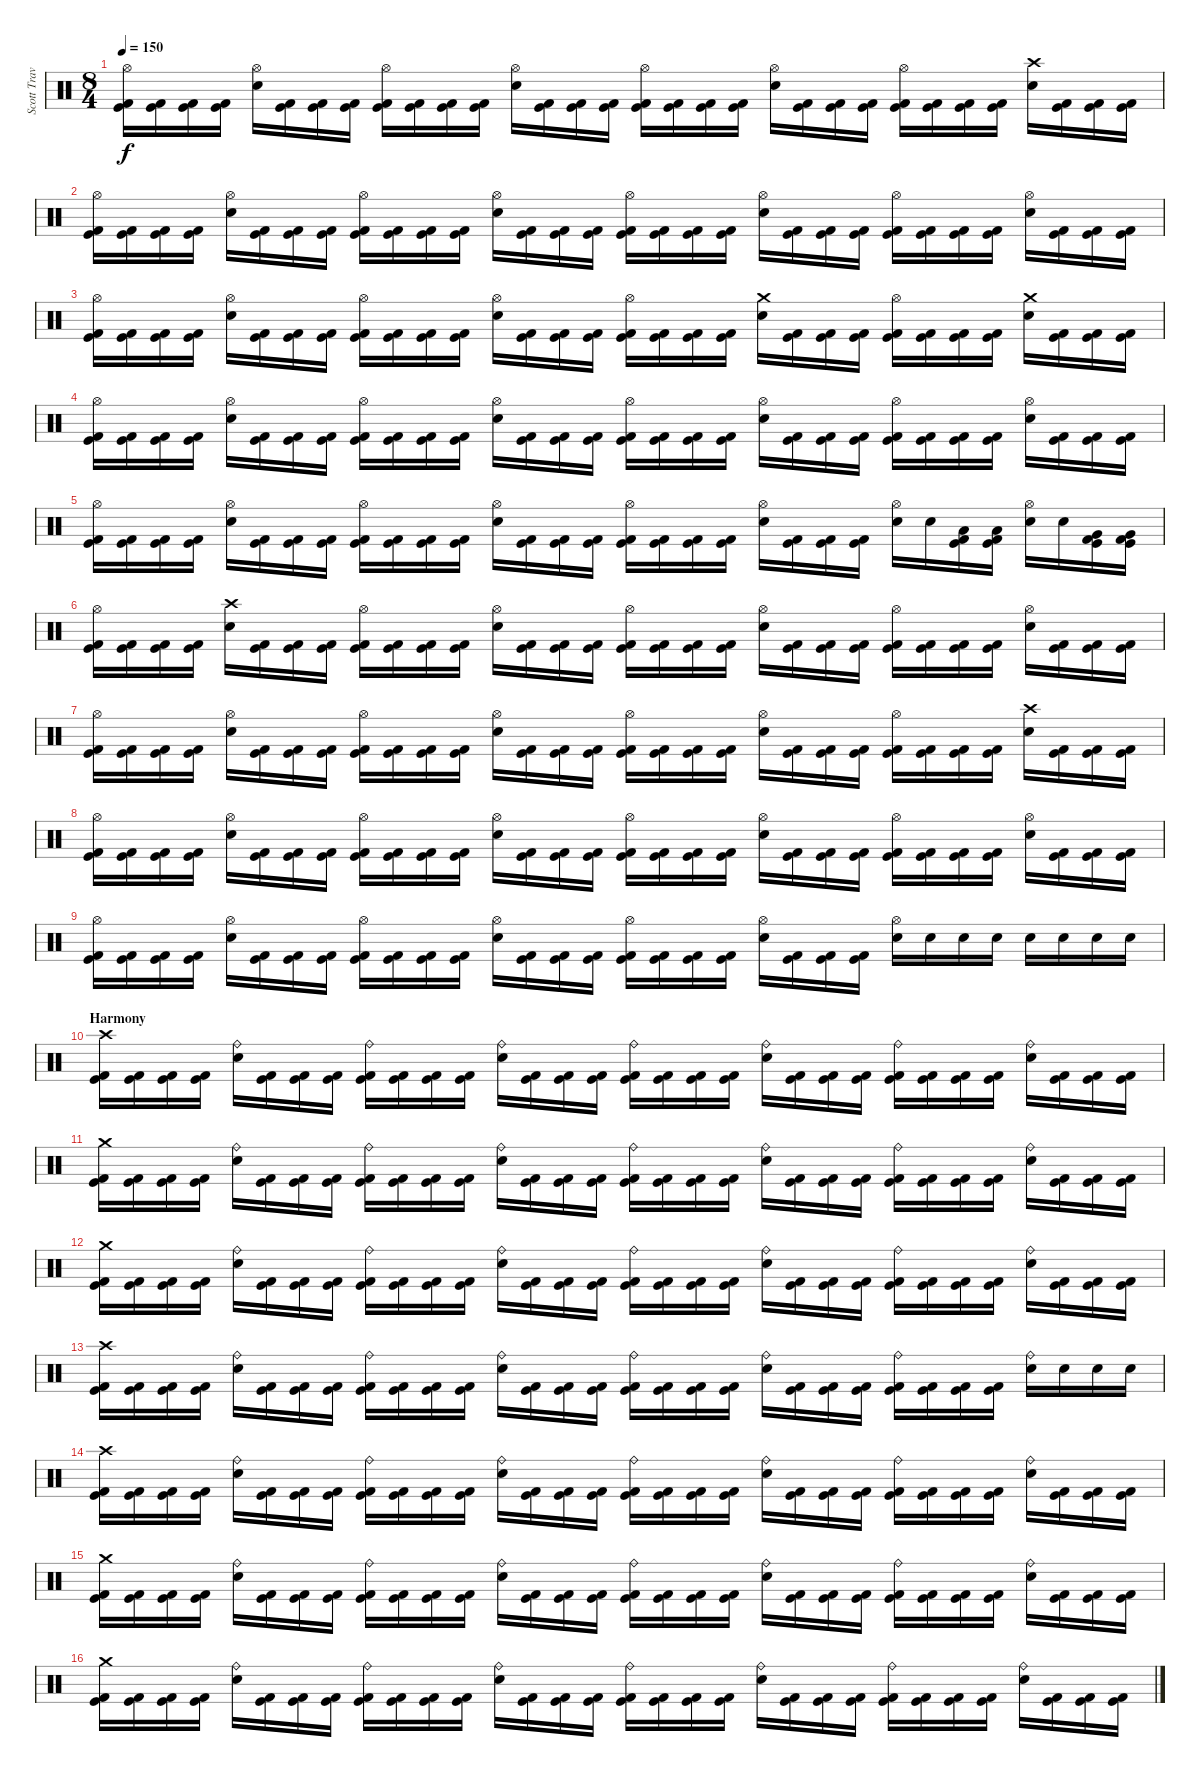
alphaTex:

\track ("Scott Travis" "Scott Trav") {instrument percussion}
\staff {score}
\articulation defaults
\ts (8 4)
\tempo 150
\clef neutral
\ks c
("Hi-Hat (open)" "Kick (hit)" "Kick (hit) 2").16{dy f} ("Kick (hit)" "Kick (hit) 2").16 ("Kick (hit)" "Kick (hit) 2").16 ("Kick (hit)" "Kick (hit) 2").16 ("Hi-Hat (open)" "Electric Snare (hit)").16 ("Kick (hit)" "Kick (hit) 2").16 ("Kick (hit)" "Kick (hit) 2").16 ("Kick (hit)" "Kick (hit) 2").16 ("Hi-Hat (open)" "Kick (hit)" "Kick (hit) 2").16 ("Kick (hit)" "Kick (hit) 2").16 ("Kick (hit)" "Kick (hit) 2").16 ("Kick (hit)" "Kick (hit) 2").16 ("Hi-Hat (open)" "Electric Snare (hit)").16 ("Kick (hit)" "Kick (hit) 2").16 ("Kick (hit)" "Kick (hit) 2").16 ("Kick (hit)" "Kick (hit) 2").16 ("Hi-Hat (open)" "Kick (hit)" "Kick (hit) 2").16 ("Kick (hit)" "Kick (hit) 2").16 ("Kick (hit)" "Kick (hit) 2").16 ("Kick (hit)" "Kick (hit) 2").16 ("Hi-Hat (open)" "Electric Snare (hit)").16 ("Kick (hit)" "Kick (hit) 2").16 ("Kick (hit)" "Kick (hit) 2").16 ("Kick (hit)" "Kick (hit) 2").16 ("Hi-Hat (open)" "Kick (hit)" "Kick (hit) 2").16 ("Kick (hit)" "Kick (hit) 2").16 ("Kick (hit)" "Kick (hit) 2").16 ("Kick (hit)" "Kick (hit) 2").16 ("Crash high (hit)" "Electric Snare (hit)").16 ("Kick (hit)" "Kick (hit) 2").16 ("Kick (hit)" "Kick (hit) 2").16 ("Kick (hit)" "Kick (hit) 2").16 |
("Hi-Hat (open)" "Kick (hit)" "Kick (hit) 2").16 ("Kick (hit)" "Kick (hit) 2").16 ("Kick (hit)" "Kick (hit) 2").16 ("Kick (hit)" "Kick (hit) 2").16 ("Hi-Hat (open)" "Electric Snare (hit)").16 ("Kick (hit)" "Kick (hit) 2").16 ("Kick (hit)" "Kick (hit) 2").16 ("Kick (hit)" "Kick (hit) 2").16 ("Hi-Hat (open)" "Kick (hit)" "Kick (hit) 2").16 ("Kick (hit)" "Kick (hit) 2").16 ("Kick (hit)" "Kick (hit) 2").16 ("Kick (hit)" "Kick (hit) 2").16 ("Hi-Hat (open)" "Electric Snare (hit)").16 ("Kick (hit)" "Kick (hit) 2").16 ("Kick (hit)" "Kick (hit) 2").16 ("Kick (hit)" "Kick (hit) 2").16 ("Hi-Hat (open)" "Kick (hit)" "Kick (hit) 2").16 ("Kick (hit)" "Kick (hit) 2").16 ("Kick (hit)" "Kick (hit) 2").16 ("Kick (hit)" "Kick (hit) 2").16 ("Hi-Hat (open)" "Electric Snare (hit)").16 ("Kick (hit)" "Kick (hit) 2").16 ("Kick (hit)" "Kick (hit) 2").16 ("Kick (hit)" "Kick (hit) 2").16 ("Hi-Hat (open)" "Kick (hit)" "Kick (hit) 2").16 ("Kick (hit)" "Kick (hit) 2").16 ("Kick (hit)" "Kick (hit) 2").16 ("Kick (hit)" "Kick (hit) 2").16 ("Hi-Hat (open)" "Electric Snare (hit)").16 ("Kick (hit)" "Kick (hit) 2").16 ("Kick (hit)" "Kick (hit) 2").16 ("Kick (hit)" "Kick (hit) 2").16 |
("Hi-Hat (open)" "Kick (hit)" "Kick (hit) 2").16 ("Kick (hit)" "Kick (hit) 2").16 ("Kick (hit)" "Kick (hit) 2").16 ("Kick (hit)" "Kick (hit) 2").16 ("Hi-Hat (open)" "Electric Snare (hit)").16 ("Kick (hit)" "Kick (hit) 2").16 ("Kick (hit)" "Kick (hit) 2").16 ("Kick (hit)" "Kick (hit) 2").16 ("Hi-Hat (open)" "Kick (hit)" "Kick (hit) 2").16 ("Kick (hit)" "Kick (hit) 2").16 ("Kick (hit)" "Kick (hit) 2").16 ("Kick (hit)" "Kick (hit) 2").16 ("Hi-Hat (open)" "Electric Snare (hit)").16 ("Kick (hit)" "Kick (hit) 2").16 ("Kick (hit)" "Kick (hit) 2").16 ("Kick (hit)" "Kick (hit) 2").16 ("Hi-Hat (open)" "Kick (hit)" "Kick (hit) 2").16 ("Kick (hit)" "Kick (hit) 2").16 ("Kick (hit)" "Kick (hit) 2").16 ("Kick (hit)" "Kick (hit) 2").16 ("Crash medium (hit)" "Electric Snare (hit)").16 ("Kick (hit)" "Kick (hit) 2").16 ("Kick (hit)" "Kick (hit) 2").16 ("Kick (hit)" "Kick (hit) 2").16 ("Hi-Hat (open)" "Kick (hit)" "Kick (hit) 2").16 ("Kick (hit)" "Kick (hit) 2").16 ("Kick (hit)" "Kick (hit) 2").16 ("Kick (hit)" "Kick (hit) 2").16 ("Crash medium (hit)" "Electric Snare (hit)").16 ("Kick (hit)" "Kick (hit) 2").16 ("Kick (hit)" "Kick (hit) 2").16 ("Kick (hit)" "Kick (hit) 2").16 |
("Hi-Hat (open)" "Kick (hit)" "Kick (hit) 2").16 ("Kick (hit)" "Kick (hit) 2").16 ("Kick (hit)" "Kick (hit) 2").16 ("Kick (hit)" "Kick (hit) 2").16 ("Hi-Hat (open)" "Electric Snare (hit)").16 ("Kick (hit)" "Kick (hit) 2").16 ("Kick (hit)" "Kick (hit) 2").16 ("Kick (hit)" "Kick (hit) 2").16 ("Hi-Hat (open)" "Kick (hit)" "Kick (hit) 2").16 ("Kick (hit)" "Kick (hit) 2").16 ("Kick (hit)" "Kick (hit) 2").16 ("Kick (hit)" "Kick (hit) 2").16 ("Hi-Hat (open)" "Electric Snare (hit)").16 ("Kick (hit)" "Kick (hit) 2").16 ("Kick (hit)" "Kick (hit) 2").16 ("Kick (hit)" "Kick (hit) 2").16 ("Hi-Hat (open)" "Kick (hit)" "Kick (hit) 2").16 ("Kick (hit)" "Kick (hit) 2").16 ("Kick (hit)" "Kick (hit) 2").16 ("Kick (hit)" "Kick (hit) 2").16 ("Hi-Hat (open)" "Electric Snare (hit)").16 ("Kick (hit)" "Kick (hit) 2").16 ("Kick (hit)" "Kick (hit) 2").16 ("Kick (hit)" "Kick (hit) 2").16 ("Hi-Hat (open)" "Kick (hit)" "Kick (hit) 2").16 ("Kick (hit)" "Kick (hit) 2").16 ("Kick (hit)" "Kick (hit) 2").16 ("Kick (hit)" "Kick (hit) 2").16 ("Hi-Hat (open)" "Electric Snare (hit)").16 ("Kick (hit)" "Kick (hit) 2").16 ("Kick (hit)" "Kick (hit) 2").16 ("Kick (hit)" "Kick (hit) 2").16 |
("Hi-Hat (open)" "Kick (hit)" "Kick (hit) 2").16 ("Kick (hit)" "Kick (hit) 2").16 ("Kick (hit)" "Kick (hit) 2").16 ("Kick (hit)" "Kick (hit) 2").16 ("Hi-Hat (open)" "Electric Snare (hit)").16 ("Kick (hit)" "Kick (hit) 2").16 ("Kick (hit)" "Kick (hit) 2").16 ("Kick (hit)" "Kick (hit) 2").16 ("Hi-Hat (open)" "Kick (hit)" "Kick (hit) 2").16 ("Kick (hit)" "Kick (hit) 2").16 ("Kick (hit)" "Kick (hit) 2").16 ("Kick (hit)" "Kick (hit) 2").16 ("Hi-Hat (open)" "Electric Snare (hit)").16 ("Kick (hit)" "Kick (hit) 2").16 ("Kick (hit)" "Kick (hit) 2").16 ("Kick (hit)" "Kick (hit) 2").16 ("Hi-Hat (open)" "Kick (hit)" "Kick (hit) 2").16 ("Kick (hit)" "Kick (hit) 2").16 ("Kick (hit)" "Kick (hit) 2").16 ("Kick (hit)" "Kick (hit) 2").16 ("Hi-Hat (open)" "Electric Snare (hit)").16 ("Kick (hit)" "Kick (hit) 2").16 ("Kick (hit)" "Kick (hit) 2").16 ("Kick (hit)" "Kick (hit) 2").16 ("Hi-Hat (open)" "Electric Snare (hit)").16 "Electric Snare (hit)".16 ("Low Tom (hit)" "Kick (hit)" "Kick (hit) 2").16 ("Low Tom (hit)" "Kick (hit)" "Kick (hit) 2").16 ("Hi-Hat (open)" "Electric Snare (hit)").16 "Electric Snare (hit)".16 ("Very Low Tom (hit)" "Kick (hit)" "Kick (hit) 2").16 ("Very Low Tom (hit)" "Kick (hit)" "Kick (hit) 2").16 |
("Hi-Hat (open)" "Kick (hit)" "Kick (hit) 2").16 ("Kick (hit)" "Kick (hit) 2").16 ("Kick (hit)" "Kick (hit) 2").16 ("Kick (hit)" "Kick (hit) 2").16 ("Crash high (hit)" "Electric Snare (hit)").16 ("Kick (hit)" "Kick (hit) 2").16 ("Kick (hit)" "Kick (hit) 2").16 ("Kick (hit)" "Kick (hit) 2").16 ("Hi-Hat (open)" "Kick (hit)" "Kick (hit) 2").16 ("Kick (hit)" "Kick (hit) 2").16 ("Kick (hit)" "Kick (hit) 2").16 ("Kick (hit)" "Kick (hit) 2").16 ("Hi-Hat (open)" "Electric Snare (hit)").16 ("Kick (hit)" "Kick (hit) 2").16 ("Kick (hit)" "Kick (hit) 2").16 ("Kick (hit)" "Kick (hit) 2").16 ("Hi-Hat (open)" "Kick (hit)" "Kick (hit) 2").16 ("Kick (hit)" "Kick (hit) 2").16 ("Kick (hit)" "Kick (hit) 2").16 ("Kick (hit)" "Kick (hit) 2").16 ("Hi-Hat (open)" "Electric Snare (hit)").16 ("Kick (hit)" "Kick (hit) 2").16 ("Kick (hit)" "Kick (hit) 2").16 ("Kick (hit)" "Kick (hit) 2").16 ("Hi-Hat (open)" "Kick (hit)" "Kick (hit) 2").16 ("Kick (hit)" "Kick (hit) 2").16 ("Kick (hit)" "Kick (hit) 2").16 ("Kick (hit)" "Kick (hit) 2").16 ("Hi-Hat (open)" "Electric Snare (hit)").16 ("Kick (hit)" "Kick (hit) 2").16 ("Kick (hit)" "Kick (hit) 2").16 ("Kick (hit)" "Kick (hit) 2").16 |
("Hi-Hat (open)" "Kick (hit)" "Kick (hit) 2").16 ("Kick (hit)" "Kick (hit) 2").16 ("Kick (hit)" "Kick (hit) 2").16 ("Kick (hit)" "Kick (hit) 2").16 ("Hi-Hat (open)" "Electric Snare (hit)").16 ("Kick (hit)" "Kick (hit) 2").16 ("Kick (hit)" "Kick (hit) 2").16 ("Kick (hit)" "Kick (hit) 2").16 ("Hi-Hat (open)" "Kick (hit)" "Kick (hit) 2").16 ("Kick (hit)" "Kick (hit) 2").16 ("Kick (hit)" "Kick (hit) 2").16 ("Kick (hit)" "Kick (hit) 2").16 ("Hi-Hat (open)" "Electric Snare (hit)").16 ("Kick (hit)" "Kick (hit) 2").16 ("Kick (hit)" "Kick (hit) 2").16 ("Kick (hit)" "Kick (hit) 2").16 ("Hi-Hat (open)" "Kick (hit)" "Kick (hit) 2").16 ("Kick (hit)" "Kick (hit) 2").16 ("Kick (hit)" "Kick (hit) 2").16 ("Kick (hit)" "Kick (hit) 2").16 ("Hi-Hat (open)" "Electric Snare (hit)").16 ("Kick (hit)" "Kick (hit) 2").16 ("Kick (hit)" "Kick (hit) 2").16 ("Kick (hit)" "Kick (hit) 2").16 ("Hi-Hat (open)" "Kick (hit)" "Kick (hit) 2").16 ("Kick (hit)" "Kick (hit) 2").16 ("Kick (hit)" "Kick (hit) 2").16 ("Kick (hit)" "Kick (hit) 2").16 ("Crash high (hit)" "Electric Snare (hit)").16 ("Kick (hit)" "Kick (hit) 2").16 ("Kick (hit)" "Kick (hit) 2").16 ("Kick (hit)" "Kick (hit) 2").16 |
("Hi-Hat (open)" "Kick (hit)" "Kick (hit) 2").16 ("Kick (hit)" "Kick (hit) 2").16 ("Kick (hit)" "Kick (hit) 2").16 ("Kick (hit)" "Kick (hit) 2").16 ("Hi-Hat (open)" "Electric Snare (hit)").16 ("Kick (hit)" "Kick (hit) 2").16 ("Kick (hit)" "Kick (hit) 2").16 ("Kick (hit)" "Kick (hit) 2").16 ("Hi-Hat (open)" "Kick (hit)" "Kick (hit) 2").16 ("Kick (hit)" "Kick (hit) 2").16 ("Kick (hit)" "Kick (hit) 2").16 ("Kick (hit)" "Kick (hit) 2").16 ("Hi-Hat (open)" "Electric Snare (hit)").16 ("Kick (hit)" "Kick (hit) 2").16 ("Kick (hit)" "Kick (hit) 2").16 ("Kick (hit)" "Kick (hit) 2").16 ("Hi-Hat (open)" "Kick (hit)" "Kick (hit) 2").16 ("Kick (hit)" "Kick (hit) 2").16 ("Kick (hit)" "Kick (hit) 2").16 ("Kick (hit)" "Kick (hit) 2").16 ("Hi-Hat (open)" "Electric Snare (hit)").16 ("Kick (hit)" "Kick (hit) 2").16 ("Kick (hit)" "Kick (hit) 2").16 ("Kick (hit)" "Kick (hit) 2").16 ("Hi-Hat (open)" "Kick (hit)" "Kick (hit) 2").16 ("Kick (hit)" "Kick (hit) 2").16 ("Kick (hit)" "Kick (hit) 2").16 ("Kick (hit)" "Kick (hit) 2").16 ("Hi-Hat (open)" "Electric Snare (hit)").16 ("Kick (hit)" "Kick (hit) 2").16 ("Kick (hit)" "Kick (hit) 2").16 ("Kick (hit)" "Kick (hit) 2").16 |
("Hi-Hat (open)" "Kick (hit)" "Kick (hit) 2").16 ("Kick (hit)" "Kick (hit) 2").16 ("Kick (hit)" "Kick (hit) 2").16 ("Kick (hit)" "Kick (hit) 2").16 ("Hi-Hat (open)" "Electric Snare (hit)").16 ("Kick (hit)" "Kick (hit) 2").16 ("Kick (hit)" "Kick (hit) 2").16 ("Kick (hit)" "Kick (hit) 2").16 ("Hi-Hat (open)" "Kick (hit)" "Kick (hit) 2").16 ("Kick (hit)" "Kick (hit) 2").16 ("Kick (hit)" "Kick (hit) 2").16 ("Kick (hit)" "Kick (hit) 2").16 ("Hi-Hat (open)" "Electric Snare (hit)").16 ("Kick (hit)" "Kick (hit) 2").16 ("Kick (hit)" "Kick (hit) 2").16 ("Kick (hit)" "Kick (hit) 2").16 ("Hi-Hat (open)" "Kick (hit)" "Kick (hit) 2").16 ("Kick (hit)" "Kick (hit) 2").16 ("Kick (hit)" "Kick (hit) 2").16 ("Kick (hit)" "Kick (hit) 2").16 ("Hi-Hat (open)" "Electric Snare (hit)").16 ("Kick (hit)" "Kick (hit) 2").16 ("Kick (hit)" "Kick (hit) 2").16 ("Kick (hit)" "Kick (hit) 2").16 ("Hi-Hat (open)" "Electric Snare (hit)").16 "Electric Snare (hit)".16 "Electric Snare (hit)".16 "Electric Snare (hit)".16 "Electric Snare (hit)".16 "Electric Snare (hit)".16 "Electric Snare (hit)".16 "Electric Snare (hit)".16 |
\section ("" "Harmony")
("Crash high (hit)" "Kick (hit)" "Kick (hit) 2").16 ("Kick (hit)" "Kick (hit) 2").16 ("Kick (hit)" "Kick (hit) 2").16 ("Kick (hit)" "Kick (hit) 2").16 ("Ride (bell)" "Electric Snare (hit)").16 ("Kick (hit)" "Kick (hit) 2").16 ("Kick (hit)" "Kick (hit) 2").16 ("Kick (hit)" "Kick (hit) 2").16 ("Ride (bell)" "Kick (hit)" "Kick (hit) 2").16 ("Kick (hit)" "Kick (hit) 2").16 ("Kick (hit)" "Kick (hit) 2").16 ("Kick (hit)" "Kick (hit) 2").16 ("Ride (bell)" "Electric Snare (hit)").16 ("Kick (hit)" "Kick (hit) 2").16 ("Kick (hit)" "Kick (hit) 2").16 ("Kick (hit)" "Kick (hit) 2").16 ("Ride (bell)" "Kick (hit)" "Kick (hit) 2").16 ("Kick (hit)" "Kick (hit) 2").16 ("Kick (hit)" "Kick (hit) 2").16 ("Kick (hit)" "Kick (hit) 2").16 ("Ride (bell)" "Electric Snare (hit)").16 ("Kick (hit)" "Kick (hit) 2").16 ("Kick (hit)" "Kick (hit) 2").16 ("Kick (hit)" "Kick (hit) 2").16 ("Ride (bell)" "Kick (hit)" "Kick (hit) 2").16 ("Kick (hit)" "Kick (hit) 2").16 ("Kick (hit)" "Kick (hit) 2").16 ("Kick (hit)" "Kick (hit) 2").16 ("Ride (bell)" "Electric Snare (hit)").16 ("Kick (hit)" "Kick (hit) 2").16 ("Kick (hit)" "Kick (hit) 2").16 ("Kick (hit)" "Kick (hit) 2").16 |
("Crash medium (hit)" "Kick (hit)" "Kick (hit) 2").16 ("Kick (hit)" "Kick (hit) 2").16 ("Kick (hit)" "Kick (hit) 2").16 ("Kick (hit)" "Kick (hit) 2").16 ("Ride (bell)" "Electric Snare (hit)").16 ("Kick (hit)" "Kick (hit) 2").16 ("Kick (hit)" "Kick (hit) 2").16 ("Kick (hit)" "Kick (hit) 2").16 ("Ride (bell)" "Kick (hit)" "Kick (hit) 2").16 ("Kick (hit)" "Kick (hit) 2").16 ("Kick (hit)" "Kick (hit) 2").16 ("Kick (hit)" "Kick (hit) 2").16 ("Ride (bell)" "Electric Snare (hit)").16 ("Kick (hit)" "Kick (hit) 2").16 ("Kick (hit)" "Kick (hit) 2").16 ("Kick (hit)" "Kick (hit) 2").16 ("Ride (bell)" "Kick (hit)" "Kick (hit) 2").16 ("Kick (hit)" "Kick (hit) 2").16 ("Kick (hit)" "Kick (hit) 2").16 ("Kick (hit)" "Kick (hit) 2").16 ("Ride (bell)" "Electric Snare (hit)").16 ("Kick (hit)" "Kick (hit) 2").16 ("Kick (hit)" "Kick (hit) 2").16 ("Kick (hit)" "Kick (hit) 2").16 ("Ride (bell)" "Kick (hit)" "Kick (hit) 2").16 ("Kick (hit)" "Kick (hit) 2").16 ("Kick (hit)" "Kick (hit) 2").16 ("Kick (hit)" "Kick (hit) 2").16 ("Ride (bell)" "Electric Snare (hit)").16 ("Kick (hit)" "Kick (hit) 2").16 ("Kick (hit)" "Kick (hit) 2").16 ("Kick (hit)" "Kick (hit) 2").16 |
("Crash medium (hit)" "Kick (hit)" "Kick (hit) 2").16 ("Kick (hit)" "Kick (hit) 2").16 ("Kick (hit)" "Kick (hit) 2").16 ("Kick (hit)" "Kick (hit) 2").16 ("Ride (bell)" "Electric Snare (hit)").16 ("Kick (hit)" "Kick (hit) 2").16 ("Kick (hit)" "Kick (hit) 2").16 ("Kick (hit)" "Kick (hit) 2").16 ("Ride (bell)" "Kick (hit)" "Kick (hit) 2").16 ("Kick (hit)" "Kick (hit) 2").16 ("Kick (hit)" "Kick (hit) 2").16 ("Kick (hit)" "Kick (hit) 2").16 ("Ride (bell)" "Electric Snare (hit)").16 ("Kick (hit)" "Kick (hit) 2").16 ("Kick (hit)" "Kick (hit) 2").16 ("Kick (hit)" "Kick (hit) 2").16 ("Ride (bell)" "Kick (hit)" "Kick (hit) 2").16 ("Kick (hit)" "Kick (hit) 2").16 ("Kick (hit)" "Kick (hit) 2").16 ("Kick (hit)" "Kick (hit) 2").16 ("Ride (bell)" "Electric Snare (hit)").16 ("Kick (hit)" "Kick (hit) 2").16 ("Kick (hit)" "Kick (hit) 2").16 ("Kick (hit)" "Kick (hit) 2").16 ("Ride (bell)" "Kick (hit)" "Kick (hit) 2").16 ("Kick (hit)" "Kick (hit) 2").16 ("Kick (hit)" "Kick (hit) 2").16 ("Kick (hit)" "Kick (hit) 2").16 ("Ride (bell)" "Electric Snare (hit)").16 ("Kick (hit)" "Kick (hit) 2").16 ("Kick (hit)" "Kick (hit) 2").16 ("Kick (hit)" "Kick (hit) 2").16 |
("Crash high (hit)" "Kick (hit)" "Kick (hit) 2").16 ("Kick (hit)" "Kick (hit) 2").16 ("Kick (hit)" "Kick (hit) 2").16 ("Kick (hit)" "Kick (hit) 2").16 ("Ride (bell)" "Electric Snare (hit)").16 ("Kick (hit)" "Kick (hit) 2").16 ("Kick (hit)" "Kick (hit) 2").16 ("Kick (hit)" "Kick (hit) 2").16 ("Ride (bell)" "Kick (hit)" "Kick (hit) 2").16 ("Kick (hit)" "Kick (hit) 2").16 ("Kick (hit)" "Kick (hit) 2").16 ("Kick (hit)" "Kick (hit) 2").16 ("Ride (bell)" "Electric Snare (hit)").16 ("Kick (hit)" "Kick (hit) 2").16 ("Kick (hit)" "Kick (hit) 2").16 ("Kick (hit)" "Kick (hit) 2").16 ("Ride (bell)" "Kick (hit)" "Kick (hit) 2").16 ("Kick (hit)" "Kick (hit) 2").16 ("Kick (hit)" "Kick (hit) 2").16 ("Kick (hit)" "Kick (hit) 2").16 ("Ride (bell)" "Electric Snare (hit)").16 ("Kick (hit)" "Kick (hit) 2").16 ("Kick (hit)" "Kick (hit) 2").16 ("Kick (hit)" "Kick (hit) 2").16 ("Ride (bell)" "Kick (hit)" "Kick (hit) 2").16 ("Kick (hit)" "Kick (hit) 2").16 ("Kick (hit)" "Kick (hit) 2").16 ("Kick (hit)" "Kick (hit) 2").16 ("Ride (bell)" "Electric Snare (hit)").16 "Electric Snare (hit)".16 "Electric Snare (hit)".16 "Electric Snare (hit)".16 |
("Crash high (hit)" "Kick (hit)" "Kick (hit) 2").16 ("Kick (hit)" "Kick (hit) 2").16 ("Kick (hit)" "Kick (hit) 2").16 ("Kick (hit)" "Kick (hit) 2").16 ("Ride (bell)" "Electric Snare (hit)").16 ("Kick (hit)" "Kick (hit) 2").16 ("Kick (hit)" "Kick (hit) 2").16 ("Kick (hit)" "Kick (hit) 2").16 ("Ride (bell)" "Kick (hit)" "Kick (hit) 2").16 ("Kick (hit)" "Kick (hit) 2").16 ("Kick (hit)" "Kick (hit) 2").16 ("Kick (hit)" "Kick (hit) 2").16 ("Ride (bell)" "Electric Snare (hit)").16 ("Kick (hit)" "Kick (hit) 2").16 ("Kick (hit)" "Kick (hit) 2").16 ("Kick (hit)" "Kick (hit) 2").16 ("Ride (bell)" "Kick (hit)" "Kick (hit) 2").16 ("Kick (hit)" "Kick (hit) 2").16 ("Kick (hit)" "Kick (hit) 2").16 ("Kick (hit)" "Kick (hit) 2").16 ("Ride (bell)" "Electric Snare (hit)").16 ("Kick (hit)" "Kick (hit) 2").16 ("Kick (hit)" "Kick (hit) 2").16 ("Kick (hit)" "Kick (hit) 2").16 ("Ride (bell)" "Kick (hit)" "Kick (hit) 2").16 ("Kick (hit)" "Kick (hit) 2").16 ("Kick (hit)" "Kick (hit) 2").16 ("Kick (hit)" "Kick (hit) 2").16 ("Ride (bell)" "Electric Snare (hit)").16 ("Kick (hit)" "Kick (hit) 2").16 ("Kick (hit)" "Kick (hit) 2").16 ("Kick (hit)" "Kick (hit) 2").16 |
("Crash medium (hit)" "Kick (hit)" "Kick (hit) 2").16 ("Kick (hit)" "Kick (hit) 2").16 ("Kick (hit)" "Kick (hit) 2").16 ("Kick (hit)" "Kick (hit) 2").16 ("Ride (bell)" "Electric Snare (hit)").16 ("Kick (hit)" "Kick (hit) 2").16 ("Kick (hit)" "Kick (hit) 2").16 ("Kick (hit)" "Kick (hit) 2").16 ("Ride (bell)" "Kick (hit)" "Kick (hit) 2").16 ("Kick (hit)" "Kick (hit) 2").16 ("Kick (hit)" "Kick (hit) 2").16 ("Kick (hit)" "Kick (hit) 2").16 ("Ride (bell)" "Electric Snare (hit)").16 ("Kick (hit)" "Kick (hit) 2").16 ("Kick (hit)" "Kick (hit) 2").16 ("Kick (hit)" "Kick (hit) 2").16 ("Ride (bell)" "Kick (hit)" "Kick (hit) 2").16 ("Kick (hit)" "Kick (hit) 2").16 ("Kick (hit)" "Kick (hit) 2").16 ("Kick (hit)" "Kick (hit) 2").16 ("Ride (bell)" "Electric Snare (hit)").16 ("Kick (hit)" "Kick (hit) 2").16 ("Kick (hit)" "Kick (hit) 2").16 ("Kick (hit)" "Kick (hit) 2").16 ("Ride (bell)" "Kick (hit)" "Kick (hit) 2").16 ("Kick (hit)" "Kick (hit) 2").16 ("Kick (hit)" "Kick (hit) 2").16 ("Kick (hit)" "Kick (hit) 2").16 ("Ride (bell)" "Electric Snare (hit)").16 ("Kick (hit)" "Kick (hit) 2").16 ("Kick (hit)" "Kick (hit) 2").16 ("Kick (hit)" "Kick (hit) 2").16 |
("Crash medium (hit)" "Kick (hit)" "Kick (hit) 2").16 ("Kick (hit)" "Kick (hit) 2").16 ("Kick (hit)" "Kick (hit) 2").16 ("Kick (hit)" "Kick (hit) 2").16 ("Ride (bell)" "Electric Snare (hit)").16 ("Kick (hit)" "Kick (hit) 2").16 ("Kick (hit)" "Kick (hit) 2").16 ("Kick (hit)" "Kick (hit) 2").16 ("Ride (bell)" "Kick (hit)" "Kick (hit) 2").16 ("Kick (hit)" "Kick (hit) 2").16 ("Kick (hit)" "Kick (hit) 2").16 ("Kick (hit)" "Kick (hit) 2").16 ("Ride (bell)" "Electric Snare (hit)").16 ("Kick (hit)" "Kick (hit) 2").16 ("Kick (hit)" "Kick (hit) 2").16 ("Kick (hit)" "Kick (hit) 2").16 ("Ride (bell)" "Kick (hit)" "Kick (hit) 2").16 ("Kick (hit)" "Kick (hit) 2").16 ("Kick (hit)" "Kick (hit) 2").16 ("Kick (hit)" "Kick (hit) 2").16 ("Ride (bell)" "Electric Snare (hit)").16 ("Kick (hit)" "Kick (hit) 2").16 ("Kick (hit)" "Kick (hit) 2").16 ("Kick (hit)" "Kick (hit) 2").16 ("Ride (bell)" "Kick (hit)" "Kick (hit) 2").16 ("Kick (hit)" "Kick (hit) 2").16 ("Kick (hit)" "Kick (hit) 2").16 ("Kick (hit)" "Kick (hit) 2").16 ("Ride (bell)" "Electric Snare (hit)").16 ("Kick (hit)" "Kick (hit) 2").16 ("Kick (hit)" "Kick (hit) 2").16 ("Kick (hit)" "Kick (hit) 2").16
